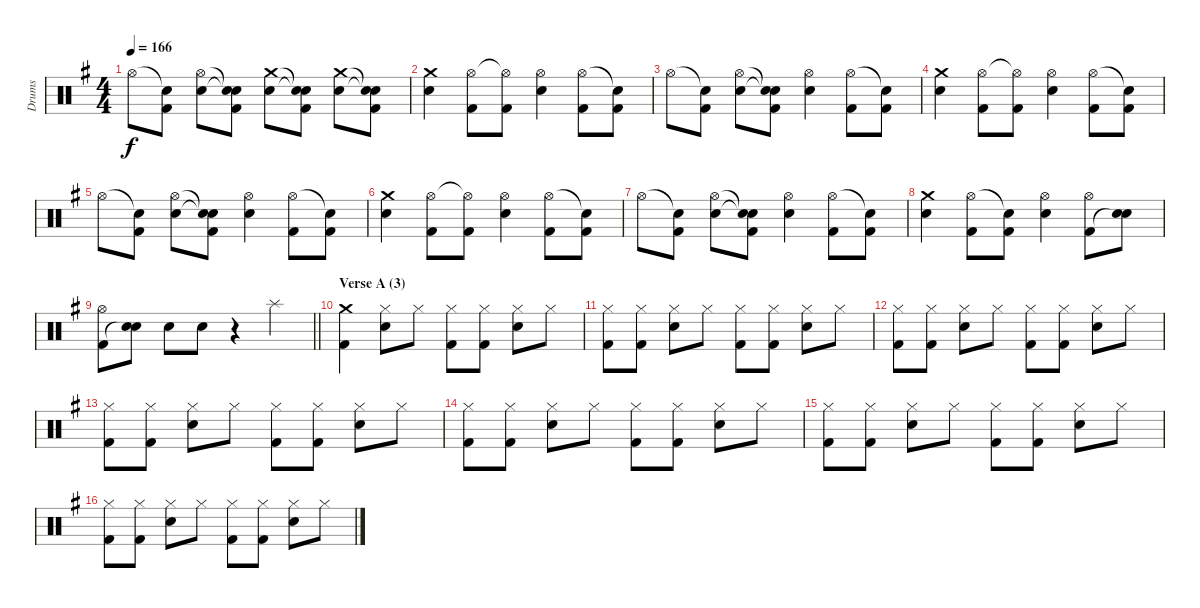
\track ("Drums" "Drums") {instrument percussion}
\staff {score}
\articulation defaults
\ts (4 4)
\tempo 166
\clef neutral
\ks g "Hi-Hat (open)".8{dy f}
("Snare (hit)"{t} "Kick (hit) 2").8 ("Hi-Hat (open)" "Electric Snare (hit)").8 ("Snare (hit)"{t} "Snare (hit)"{t} "Kick (hit) 2").8 ("Crash medium (hit)" "Electric Snare (hit)").8 ("Snare (hit)"{t} "Snare (hit)"{t} "Kick (hit) 2").8 ("Crash medium (hit)" "Electric Snare (hit)").8 ("Snare (hit)"{t} "Snare (hit)"{t} "Kick (hit) 2").8 |
("Crash medium (hit)" "Electric Snare (hit)").4 ("Hi-Hat (open)" "Kick (hit) 2").8 ("Hi-Hat (open)"{t} "Kick (hit) 2").8 ("Hi-Hat (open)" "Electric Snare (hit)").4 ("Hi-Hat (open)" "Kick (hit) 2").8 ("Snare (hit)"{t} "Kick (hit) 2").8 |
"Hi-Hat (open)".8 ("Snare (hit)"{t} "Kick (hit) 2").8 ("Hi-Hat (open)" "Electric Snare (hit)").8 ("Snare (hit)"{t} "Snare (hit)"{t} "Kick (hit) 2").8 ("Hi-Hat (open)" "Electric Snare (hit)").4 ("Hi-Hat (open)" "Kick (hit) 2").8 ("Snare (hit)"{t} "Kick (hit) 2").8 |
("Crash medium (hit)" "Electric Snare (hit)").4 ("Hi-Hat (open)" "Kick (hit) 2").8 ("Hi-Hat (open)"{t} "Kick (hit) 2").8 ("Hi-Hat (open)" "Electric Snare (hit)").4 ("Hi-Hat (open)" "Kick (hit) 2").8 ("Snare (hit)"{t} "Kick (hit) 2").8 |
"Hi-Hat (open)".8 ("Snare (hit)"{t} "Kick (hit) 2").8 ("Hi-Hat (open)" "Electric Snare (hit)").8 ("Snare (hit)"{t} "Snare (hit)"{t} "Kick (hit) 2").8 ("Hi-Hat (open)" "Electric Snare (hit)").4 ("Hi-Hat (open)" "Kick (hit) 2").8 ("Snare (hit)"{t} "Kick (hit) 2").8 |
("Crash medium (hit)" "Electric Snare (hit)").4 ("Hi-Hat (open)" "Kick (hit) 2").8 ("Hi-Hat (open)"{t} "Kick (hit) 2").8 ("Hi-Hat (open)" "Electric Snare (hit)").4 ("Hi-Hat (open)" "Kick (hit) 2").8 ("Snare (hit)"{t} "Kick (hit) 2").8 |
"Hi-Hat (open)".8 ("Snare (hit)"{t} "Kick (hit) 2").8 ("Hi-Hat (open)" "Electric Snare (hit)").8 ("Snare (hit)"{t} "Snare (hit)"{t} "Kick (hit) 2").8 ("Hi-Hat (open)" "Electric Snare (hit)").4 ("Hi-Hat (open)" "Kick (hit) 2").8 ("Snare (hit)"{t} "Kick (hit) 2").8 |
("Crash medium (hit)" "Electric Snare (hit)").4 ("Hi-Hat (open)" "Kick (hit) 2").8 ("Snare (hit)"{t} "Kick (hit) 2").8 ("Hi-Hat (open)" "Electric Snare (hit)").4 ("Hi-Hat (open)" "Kick (hit) 2").8 ("Electric Snare (hit)" "Snare (hit)"{t}).8 |
\barLineRight lightlight
("Hi-Hat (open)" "Kick (hit) 2").8 ("Electric Snare (hit)" "Snare (hit)"{t}).8 "Electric Snare (hit)".8 "Electric Snare (hit)".8 r.4 "Splash (hit)".4 |
\section ("" "Verse A (3)")
("Crash medium (hit)" "Kick (hit) 2").4 ("Hi-Hat (closed)" "Electric Snare (hit)").8 "Hi-Hat (closed)".8 ("Hi-Hat (closed)" "Kick (hit) 2").8 ("Hi-Hat (closed)" "Kick (hit) 2").8 ("Hi-Hat (closed)" "Electric Snare (hit)").8 "Hi-Hat (closed)".8 |
("Hi-Hat (closed)" "Kick (hit) 2").8 ("Hi-Hat (closed)" "Kick (hit) 2").8 ("Hi-Hat (closed)" "Electric Snare (hit)").8 "Hi-Hat (closed)".8 ("Hi-Hat (closed)" "Kick (hit) 2").8 ("Hi-Hat (closed)" "Kick (hit) 2").8 ("Hi-Hat (closed)" "Electric Snare (hit)").8 "Hi-Hat (closed)".8 |
("Hi-Hat (closed)" "Kick (hit) 2").8 ("Hi-Hat (closed)" "Kick (hit) 2").8 ("Hi-Hat (closed)" "Electric Snare (hit)").8 "Hi-Hat (closed)".8 ("Hi-Hat (closed)" "Kick (hit) 2").8 ("Hi-Hat (closed)" "Kick (hit) 2").8 ("Hi-Hat (closed)" "Electric Snare (hit)").8 "Hi-Hat (closed)".8 |
("Hi-Hat (closed)" "Kick (hit) 2").8 ("Hi-Hat (closed)" "Kick (hit) 2").8 ("Hi-Hat (closed)" "Electric Snare (hit)").8 "Hi-Hat (closed)".8 ("Hi-Hat (closed)" "Kick (hit) 2").8 ("Hi-Hat (closed)" "Kick (hit) 2").8 ("Hi-Hat (closed)" "Electric Snare (hit)").8 "Hi-Hat (closed)".8 |
("Hi-Hat (closed)" "Kick (hit) 2").8 ("Hi-Hat (closed)" "Kick (hit) 2").8 ("Hi-Hat (closed)" "Electric Snare (hit)").8 "Hi-Hat (closed)".8 ("Hi-Hat (closed)" "Kick (hit) 2").8 ("Hi-Hat (closed)" "Kick (hit) 2").8 ("Hi-Hat (closed)" "Electric Snare (hit)").8 "Hi-Hat (closed)".8 |
("Hi-Hat (closed)" "Kick (hit) 2").8 ("Hi-Hat (closed)" "Kick (hit) 2").8 ("Hi-Hat (closed)" "Electric Snare (hit)").8 "Hi-Hat (closed)".8 ("Hi-Hat (closed)" "Kick (hit) 2").8 ("Hi-Hat (closed)" "Kick (hit) 2").8 ("Hi-Hat (closed)" "Electric Snare (hit)").8 "Hi-Hat (closed)".8 |
("Hi-Hat (closed)" "Kick (hit) 2").8 ("Hi-Hat (closed)" "Kick (hit) 2").8 ("Hi-Hat (closed)" "Electric Snare (hit)").8 "Hi-Hat (closed)".8 ("Hi-Hat (closed)" "Kick (hit) 2").8 ("Hi-Hat (closed)" "Kick (hit) 2").8 ("Hi-Hat (closed)" "Electric Snare (hit)").8 "Hi-Hat (closed)".8
